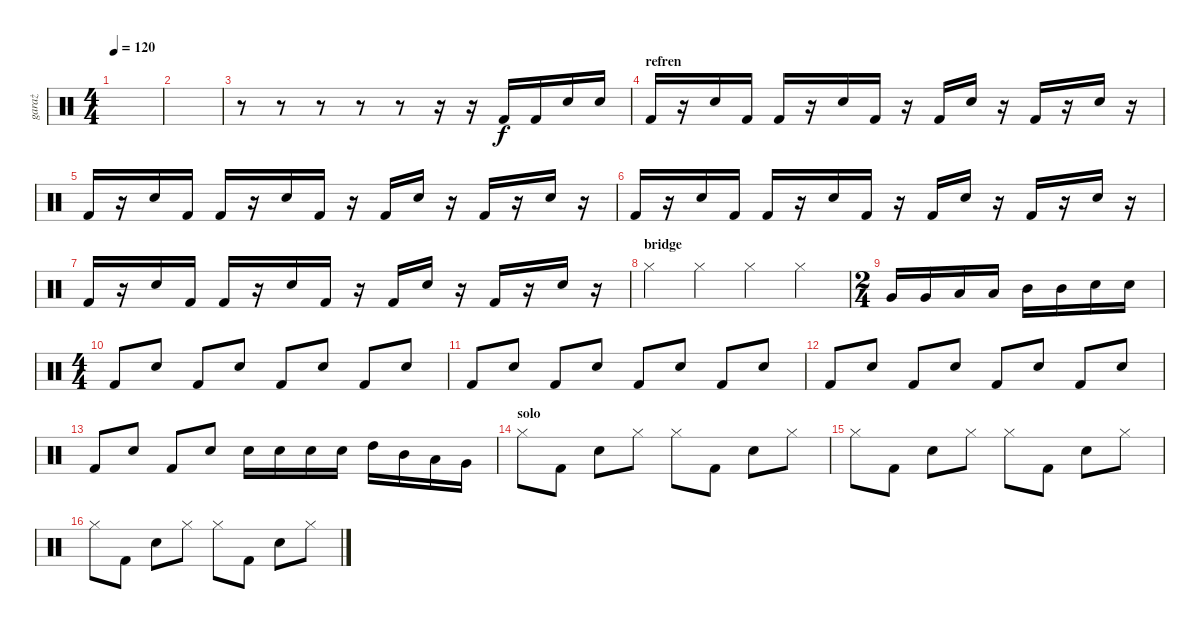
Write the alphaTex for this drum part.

\track ("garaż" "garaż") {instrument percussion}
\staff {score}
\articulation defaults
\ts (4 4)
\tempo 120
\clef neutral
\ks c
|
|
r.8 r.8 r.8 r.8 r.8 r.16 r.16 "Kick (hit) 2".16 "Kick (hit) 2".16 "Snare (hit) 2".16 "Snare (hit) 2".16 |
\section ("" "refren")
"Kick (hit) 2".16 r.16 "Snare (hit) 2".16 "Kick (hit) 2".16 "Kick (hit) 2".16 r.16 "Snare (hit) 2".16 "Kick (hit) 2".16 r.16 "Kick (hit) 2".16 "Snare (hit) 2".16 r.16 "Kick (hit) 2".16 r.16 "Snare (hit) 2".16 r.16 |
"Kick (hit) 2".16 r.16 "Snare (hit) 2".16 "Kick (hit) 2".16 "Kick (hit) 2".16 r.16 "Snare (hit) 2".16 "Kick (hit) 2".16 r.16 "Kick (hit) 2".16 "Snare (hit) 2".16 r.16 "Kick (hit) 2".16 r.16 "Snare (hit) 2".16 r.16 |
"Kick (hit) 2".16 r.16 "Snare (hit) 2".16 "Kick (hit) 2".16 "Kick (hit) 2".16 r.16 "Snare (hit) 2".16 "Kick (hit) 2".16 r.16 "Kick (hit) 2".16 "Snare (hit) 2".16 r.16 "Kick (hit) 2".16 r.16 "Snare (hit) 2".16 r.16 |
"Kick (hit) 2".16 r.16 "Snare (hit) 2".16 "Kick (hit) 2".16 "Kick (hit) 2".16 r.16 "Snare (hit) 2".16 "Kick (hit) 2".16 r.16 "Kick (hit) 2".16 "Snare (hit) 2".16 r.16 "Kick (hit) 2".16 r.16 "Snare (hit) 2".16 r.16 |
\section ("" "bridge")
"Hi-Hat (closed)".4 "Hi-Hat (closed)".4 "Hi-Hat (closed)".4 "Hi-Hat (closed)".4 |
\ts (2 4)
"Very Low Tom (hit)".16 "Very Low Tom (hit)".16 "Low Tom (hit)".16 "Low Tom (hit)".16 "Mid Tom (hit)".16 "Mid Tom (hit)".16 "Snare (hit) 2".16 "Snare (hit) 2".16 |
\ts (4 4)
"Kick (hit) 2".8 "Snare (hit) 2".8 "Kick (hit) 2".8 "Snare (hit) 2".8 "Kick (hit) 2".8 "Snare (hit) 2".8 "Kick (hit) 2".8 "Snare (hit) 2".8 |
"Kick (hit) 2".8 "Snare (hit) 2".8 "Kick (hit) 2".8 "Snare (hit) 2".8 "Kick (hit) 2".8 "Snare (hit) 2".8 "Kick (hit) 2".8 "Snare (hit) 2".8 |
"Kick (hit) 2".8 "Snare (hit) 2".8 "Kick (hit) 2".8 "Snare (hit) 2".8 "Kick (hit) 2".8 "Snare (hit) 2".8 "Kick (hit) 2".8 "Snare (hit) 2".8 |
"Kick (hit) 2".8 "Snare (hit) 2".8 "Kick (hit) 2".8 "Snare (hit) 2".8 "Snare (hit) 2".16 "Snare (hit) 2".16 "Snare (hit) 2".16 "Snare (hit) 2".16 "High Tom (hit)".16 "Mid Tom (hit)".16 "Low Tom (hit)".16 "Very Low Tom (hit)".16 |
\section ("" "solo")
"Hi-Hat (closed)".8 "Kick (hit) 2".8 "Snare (hit) 2".8 "Hi-Hat (closed)".8 "Hi-Hat (closed)".8 "Kick (hit) 2".8 "Snare (hit) 2".8 "Hi-Hat (closed)".8 |
"Hi-Hat (closed)".8 "Kick (hit) 2".8 "Snare (hit) 2".8 "Hi-Hat (closed)".8 "Hi-Hat (closed)".8 "Kick (hit) 2".8 "Snare (hit) 2".8 "Hi-Hat (closed)".8 |
"Hi-Hat (closed)".8 "Kick (hit) 2".8 "Snare (hit) 2".8 "Hi-Hat (closed)".8 "Hi-Hat (closed)".8 "Kick (hit) 2".8 "Snare (hit) 2".8 "Hi-Hat (closed)".8
